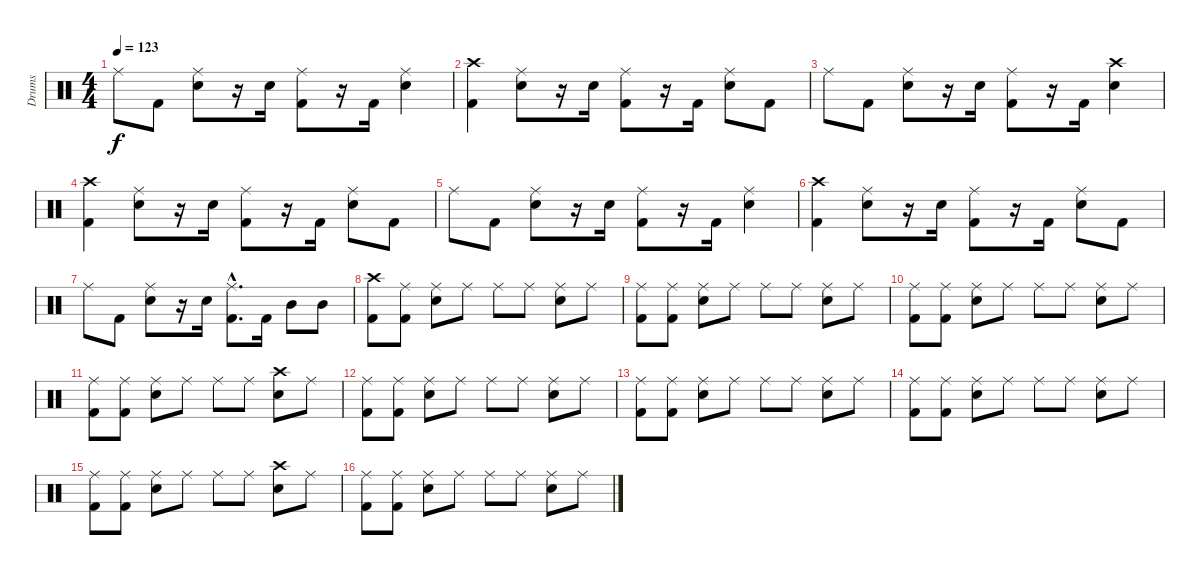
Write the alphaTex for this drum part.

\track ("Drums" "Drums") {instrument percussion}
\staff {score}
\articulation defaults
\ts (4 4)
\tempo 123
\clef neutral
\ks c "Ride (middle)".8{dy f} "Kick (hit) 2".8
("Ride (middle)" "Snare (hit) 2").8 r.16 "Snare (hit) 2".16 ("Ride (middle)" "Kick (hit) 2").8 r.16 "Kick (hit) 2".16 ("Ride (middle)" "Snare (hit) 2").4 |
("Crash high (hit)" "Kick (hit) 2").4 ("Ride (middle)" "Snare (hit) 2").8 r.16 "Snare (hit) 2".16 ("Ride (middle)" "Kick (hit) 2").8 r.16 "Kick (hit) 2".16 ("Ride (middle)" "Snare (hit) 2").8 "Kick (hit) 2".8 |
"Ride (middle)".8 "Kick (hit) 2".8 ("Ride (middle)" "Snare (hit) 2").8 r.16 "Snare (hit) 2".16 ("Ride (middle)" "Kick (hit) 2").8 r.16 "Kick (hit) 2".16 ("Crash high (hit)" "Snare (hit) 2").4 |
("Crash high (hit)" "Kick (hit) 2").4 ("Ride (middle)" "Snare (hit) 2").8 r.16 "Snare (hit) 2".16 ("Ride (middle)" "Kick (hit) 2").8 r.16 "Kick (hit) 2".16 ("Ride (middle)" "Snare (hit) 2").8 "Kick (hit) 2".8 |
"Ride (middle)".8 "Kick (hit) 2".8 ("Ride (middle)" "Snare (hit) 2").8 r.16 "Snare (hit) 2".16 ("Ride (middle)" "Kick (hit) 2").8 r.16 "Kick (hit) 2".16 ("Ride (middle)" "Snare (hit) 2").4 |
("Crash high (hit)" "Kick (hit) 2").4 ("Ride (middle)" "Snare (hit) 2").8 r.16 "Snare (hit) 2".16 ("Ride (middle)" "Kick (hit) 2").8 r.16 "Kick (hit) 2".16 ("Ride (middle)" "Snare (hit) 2").8 "Kick (hit) 2".8 |
"Ride (middle)".8 "Kick (hit) 2".8 ("Ride (middle)" "Snare (hit) 2").8 r.16 "Snare (hit) 2".16 ("Ride (middle)"{hac} "Kick (hit) 2"{hac}).8{d} "Kick (hit) 2".16 "Mid Tom (hit)".8 "Mid Tom (hit)".8 |
("Crash high (hit)" "Kick (hit) 2").8 ("Ride (middle)" "Kick (hit) 2").8 ("Ride (middle)" "Snare (hit) 2").8 "Ride (middle)".8 "Ride (middle)".8 "Ride (middle)".8 ("Ride (middle)" "Snare (hit) 2").8 "Ride (middle)".8 |
("Ride (middle)" "Kick (hit) 2").8 ("Ride (middle)" "Kick (hit) 2").8 ("Ride (middle)" "Snare (hit) 2").8 "Ride (middle)".8 "Ride (middle)".8 "Ride (middle)".8 ("Ride (middle)" "Snare (hit) 2").8 "Ride (middle)".8 |
("Ride (middle)" "Kick (hit) 2").8 ("Ride (middle)" "Kick (hit) 2").8 ("Ride (middle)" "Snare (hit) 2").8 "Ride (middle)".8 "Ride (middle)".8 "Ride (middle)".8 ("Ride (middle)" "Snare (hit) 2").8 "Ride (middle)".8 |
("Ride (middle)" "Kick (hit) 2").8 ("Ride (middle)" "Kick (hit) 2").8 ("Ride (middle)" "Snare (hit) 2").8 "Ride (middle)".8 "Ride (middle)".8 "Ride (middle)".8 ("Crash high (hit)" "Snare (hit) 2").8 "Ride (middle)".8 |
("Ride (middle)" "Kick (hit) 2").8 ("Ride (middle)" "Kick (hit) 2").8 ("Ride (middle)" "Snare (hit) 2").8 "Ride (middle)".8 "Ride (middle)".8 "Ride (middle)".8 ("Ride (middle)" "Snare (hit) 2").8 "Ride (middle)".8 |
("Ride (middle)" "Kick (hit) 2").8 ("Ride (middle)" "Kick (hit) 2").8 ("Ride (middle)" "Snare (hit) 2").8 "Ride (middle)".8 "Ride (middle)".8 "Ride (middle)".8 ("Ride (middle)" "Snare (hit) 2").8 "Ride (middle)".8 |
("Ride (middle)" "Kick (hit) 2").8 ("Ride (middle)" "Kick (hit) 2").8 ("Ride (middle)" "Snare (hit) 2").8 "Ride (middle)".8 "Ride (middle)".8 "Ride (middle)".8 ("Ride (middle)" "Snare (hit) 2").8 "Ride (middle)".8 |
("Ride (middle)" "Kick (hit) 2").8 ("Ride (middle)" "Kick (hit) 2").8 ("Ride (middle)" "Snare (hit) 2").8 "Ride (middle)".8 "Ride (middle)".8 "Ride (middle)".8 ("Crash high (hit)" "Snare (hit) 2").8 "Ride (middle)".8 |
("Ride (middle)" "Kick (hit) 2").8 ("Ride (middle)" "Kick (hit) 2").8 ("Ride (middle)" "Snare (hit) 2").8 "Ride (middle)".8 "Ride (middle)".8 "Ride (middle)".8 ("Ride (middle)" "Snare (hit) 2").8 "Ride (middle)".8
